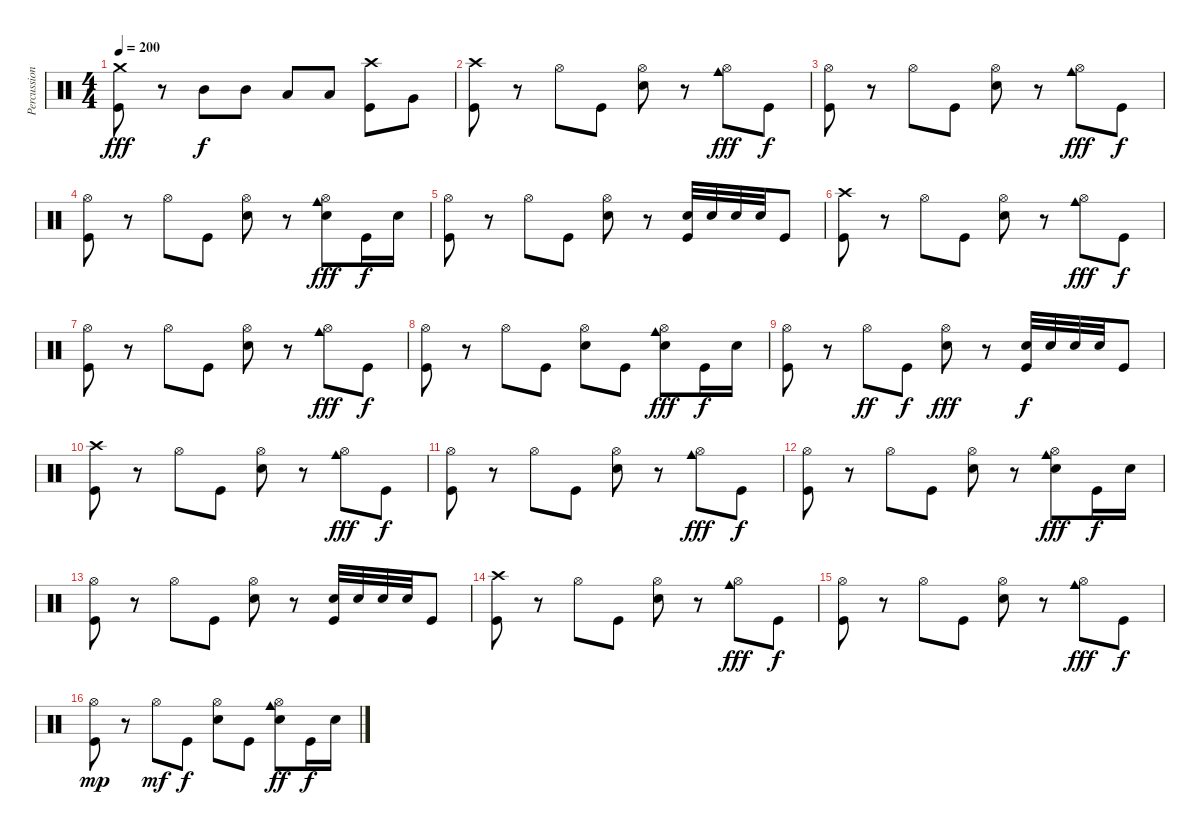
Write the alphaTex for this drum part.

\track ("Percussion" "Percussion") {instrument percussion}
\staff {score}
\articulation defaults
\ts (4 4)
\tempo 200
\clef neutral
\ks c
("Crash medium (hit)" "Kick (hit)").8{dy fff} r.8 "Mid Tom (hit)".8{dy f} "Mid Tom (hit)".8 "Low Tom (hit)".8 "Low Tom (hit)".8 ("Crash high (hit)" "Kick (hit)").8 "Very Low Tom (hit)".8 |
("Crash high (hit)" "Kick (hit)").8 r.8 "Hi-Hat (open)".8 "Kick (hit)".8 ("Hi-Hat (open)" "Electric Snare (hit)").8 r.8 ("Hi-Hat (open)" "Cowbell medium (hit)").8{dy fff} "Kick (hit)".8{dy f} |
("Hi-Hat (open)" "Kick (hit)").8 r.8 "Hi-Hat (open)".8 "Kick (hit)".8 ("Hi-Hat (open)" "Electric Snare (hit)").8 r.8 ("Hi-Hat (open)" "Cowbell medium (hit)").8{dy fff} "Kick (hit)".8{dy f} |
("Hi-Hat (open)" "Kick (hit)").8 r.8 "Hi-Hat (open)".8 "Kick (hit)".8 ("Hi-Hat (open)" "Electric Snare (hit)").8 r.8 ("Hi-Hat (open)" "Cowbell medium (hit)" "Electric Snare (hit)").8{dy fff} "Kick (hit)".16{dy f} "Electric Snare (hit)".16 |
("Hi-Hat (open)" "Kick (hit)").8 r.8 "Hi-Hat (open)".8 "Kick (hit)".8 ("Hi-Hat (open)" "Electric Snare (hit)").8 r.8 ("Electric Snare (hit)" "Kick (hit)").32 "Electric Snare (hit)".32 "Electric Snare (hit)".32 "Electric Snare (hit)".32 "Kick (hit)".8 |
("Crash high (hit)" "Kick (hit)").8 r.8 "Hi-Hat (open)".8 "Kick (hit)".8 ("Hi-Hat (open)" "Electric Snare (hit)").8 r.8 ("Hi-Hat (open)" "Cowbell medium (hit)").8{dy fff} "Kick (hit)".8{dy f} |
("Hi-Hat (open)" "Kick (hit)").8 r.8 "Hi-Hat (open)".8 "Kick (hit)".8 ("Hi-Hat (open)" "Electric Snare (hit)").8 r.8 ("Hi-Hat (open)" "Cowbell medium (hit)").8{dy fff} "Kick (hit)".8{dy f} |
("Hi-Hat (open)" "Kick (hit)").8 r.8 "Hi-Hat (open)".8 "Kick (hit)".8 ("Hi-Hat (open)" "Electric Snare (hit)").8 "Kick (hit)".8 ("Hi-Hat (open)" "Cowbell medium (hit)" "Electric Snare (hit)").8{dy fff} "Kick (hit)".16{dy f} "Electric Snare (hit)".16 |
("Hi-Hat (open)" "Kick (hit)").8 r.8 "Hi-Hat (open)".8{dy ff} "Kick (hit)".8{dy f} ("Hi-Hat (open)" "Electric Snare (hit)").8{dy fff} r.8 ("Electric Snare (hit)" "Kick (hit)").32{dy f} "Electric Snare (hit)".32 "Electric Snare (hit)".32 "Electric Snare (hit)".32 "Kick (hit)".8 |
("Crash high (hit)" "Kick (hit)").8 r.8 "Hi-Hat (open)".8 "Kick (hit)".8 ("Hi-Hat (open)" "Electric Snare (hit)").8 r.8 ("Hi-Hat (open)" "Cowbell medium (hit)").8{dy fff} "Kick (hit)".8{dy f} |
("Hi-Hat (open)" "Kick (hit)").8 r.8 "Hi-Hat (open)".8 "Kick (hit)".8 ("Hi-Hat (open)" "Electric Snare (hit)").8 r.8 ("Hi-Hat (open)" "Cowbell medium (hit)").8{dy fff} "Kick (hit)".8{dy f} |
("Hi-Hat (open)" "Kick (hit)").8 r.8 "Hi-Hat (open)".8 "Kick (hit)".8 ("Hi-Hat (open)" "Electric Snare (hit)").8 r.8 ("Hi-Hat (open)" "Cowbell medium (hit)" "Electric Snare (hit)").8{dy fff} "Kick (hit)".16{dy f} "Electric Snare (hit)".16 |
("Hi-Hat (open)" "Kick (hit)").8 r.8 "Hi-Hat (open)".8 "Kick (hit)".8 ("Hi-Hat (open)" "Electric Snare (hit)").8 r.8 ("Electric Snare (hit)" "Kick (hit)").32 "Electric Snare (hit)".32 "Electric Snare (hit)".32 "Electric Snare (hit)".32 "Kick (hit)".8 |
("Crash high (hit)" "Kick (hit)").8 r.8 "Hi-Hat (open)".8 "Kick (hit)".8 ("Hi-Hat (open)" "Electric Snare (hit)").8 r.8 ("Hi-Hat (open)" "Cowbell medium (hit)").8{dy fff} "Kick (hit)".8{dy f} |
("Hi-Hat (open)" "Kick (hit)").8 r.8 "Hi-Hat (open)".8 "Kick (hit)".8 ("Hi-Hat (open)" "Electric Snare (hit)").8 r.8 ("Hi-Hat (open)" "Cowbell medium (hit)").8{dy fff} "Kick (hit)".8{dy f} |
("Hi-Hat (open)" "Kick (hit)").8{dy mp} r.8 "Hi-Hat (open)".8{dy mf} "Kick (hit)".8{dy f} ("Hi-Hat (open)" "Electric Snare (hit)").8 "Kick (hit)".8 ("Hi-Hat (open)" "Cowbell medium (hit)" "Electric Snare (hit)").8{dy ff} "Kick (hit)".16{dy f} "Electric Snare (hit)".16
